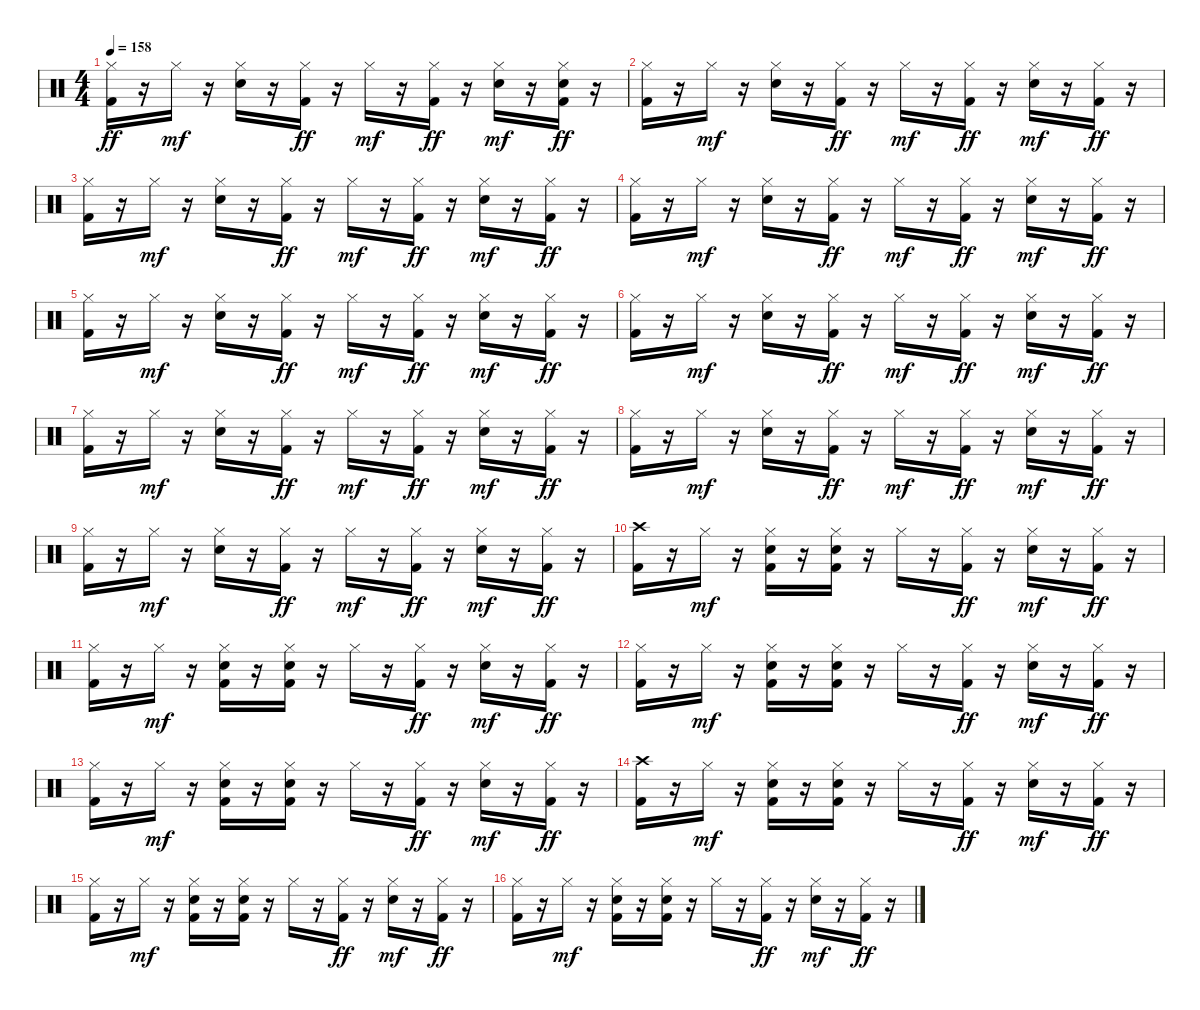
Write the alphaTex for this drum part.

\track ("   " "   ") {instrument percussion}
\staff
\articulation defaults
\ts (4 4)
\tempo 158
\clef neutral
\ks c
("Hi-Hat (closed)" "Kick (hit) 2").16{dy ff} r.16 "Hi-Hat (closed)".16{dy mf} r.16 ("Hi-Hat (closed)" "Electric Snare (hit)").16 r.16 ("Hi-Hat (closed)" "Kick (hit) 2").16{dy ff} r.16 "Hi-Hat (closed)".16{dy mf} r.16 ("Hi-Hat (closed)" "Kick (hit) 2").16{dy ff} r.16 ("Hi-Hat (closed)" "Electric Snare (hit)").16{dy mf} r.16 ("Hi-Hat (closed)" "Electric Snare (hit)" "Kick (hit) 2").16{dy ff} r.16 |
("Hi-Hat (closed)" "Kick (hit) 2").16 r.16 "Hi-Hat (closed)".16{dy mf} r.16 ("Hi-Hat (closed)" "Electric Snare (hit)").16 r.16 ("Hi-Hat (closed)" "Kick (hit) 2").16{dy ff} r.16 "Hi-Hat (closed)".16{dy mf} r.16 ("Hi-Hat (closed)" "Kick (hit) 2").16{dy ff} r.16 ("Hi-Hat (closed)" "Electric Snare (hit)").16{dy mf} r.16 ("Hi-Hat (closed)" "Kick (hit) 2").16{dy ff} r.16 |
("Hi-Hat (closed)" "Kick (hit) 2").16 r.16 "Hi-Hat (closed)".16{dy mf} r.16 ("Hi-Hat (closed)" "Electric Snare (hit)").16 r.16 ("Hi-Hat (closed)" "Kick (hit) 2").16{dy ff} r.16 "Hi-Hat (closed)".16{dy mf} r.16 ("Hi-Hat (closed)" "Kick (hit) 2").16{dy ff} r.16 ("Hi-Hat (closed)" "Electric Snare (hit)").16{dy mf} r.16 ("Hi-Hat (closed)" "Kick (hit) 2").16{dy ff} r.16 |
("Hi-Hat (closed)" "Kick (hit) 2").16 r.16 "Hi-Hat (closed)".16{dy mf} r.16 ("Hi-Hat (closed)" "Electric Snare (hit)").16 r.16 ("Hi-Hat (closed)" "Kick (hit) 2").16{dy ff} r.16 "Hi-Hat (closed)".16{dy mf} r.16 ("Hi-Hat (closed)" "Kick (hit) 2").16{dy ff} r.16 ("Hi-Hat (closed)" "Electric Snare (hit)").16{dy mf} r.16 ("Hi-Hat (closed)" "Kick (hit) 2").16{dy ff} r.16 |
("Hi-Hat (closed)" "Kick (hit) 2").16 r.16 "Hi-Hat (closed)".16{dy mf} r.16 ("Hi-Hat (closed)" "Electric Snare (hit)").16 r.16 ("Hi-Hat (closed)" "Kick (hit) 2").16{dy ff} r.16 "Hi-Hat (closed)".16{dy mf} r.16 ("Hi-Hat (closed)" "Kick (hit) 2").16{dy ff} r.16 ("Hi-Hat (closed)" "Electric Snare (hit)").16{dy mf} r.16 ("Hi-Hat (closed)" "Kick (hit) 2").16{dy ff} r.16 |
("Hi-Hat (closed)" "Kick (hit) 2").16 r.16 "Hi-Hat (closed)".16{dy mf} r.16 ("Hi-Hat (closed)" "Electric Snare (hit)").16 r.16 ("Hi-Hat (closed)" "Kick (hit) 2").16{dy ff} r.16 "Hi-Hat (closed)".16{dy mf} r.16 ("Hi-Hat (closed)" "Kick (hit) 2").16{dy ff} r.16 ("Hi-Hat (closed)" "Electric Snare (hit)").16{dy mf} r.16 ("Hi-Hat (closed)" "Kick (hit) 2").16{dy ff} r.16 |
("Hi-Hat (closed)" "Kick (hit) 2").16 r.16 "Hi-Hat (closed)".16{dy mf} r.16 ("Hi-Hat (closed)" "Electric Snare (hit)").16 r.16 ("Hi-Hat (closed)" "Kick (hit) 2").16{dy ff} r.16 "Hi-Hat (closed)".16{dy mf} r.16 ("Hi-Hat (closed)" "Kick (hit) 2").16{dy ff} r.16 ("Hi-Hat (closed)" "Electric Snare (hit)").16{dy mf} r.16 ("Hi-Hat (closed)" "Kick (hit) 2").16{dy ff} r.16 |
("Hi-Hat (closed)" "Kick (hit) 2").16 r.16 "Hi-Hat (closed)".16{dy mf} r.16 ("Hi-Hat (closed)" "Electric Snare (hit)").16 r.16 ("Hi-Hat (closed)" "Kick (hit) 2").16{dy ff} r.16 "Hi-Hat (closed)".16{dy mf} r.16 ("Hi-Hat (closed)" "Kick (hit) 2").16{dy ff} r.16 ("Hi-Hat (closed)" "Electric Snare (hit)").16{dy mf} r.16 ("Hi-Hat (closed)" "Kick (hit) 2").16{dy ff} r.16 |
("Hi-Hat (closed)" "Kick (hit) 2").16 r.16 "Hi-Hat (closed)".16{dy mf} r.16 ("Hi-Hat (closed)" "Electric Snare (hit)").16 r.16 ("Hi-Hat (closed)" "Kick (hit) 2").16{dy ff} r.16 "Hi-Hat (closed)".16{dy mf} r.16 ("Hi-Hat (closed)" "Kick (hit) 2").16{dy ff} r.16 ("Hi-Hat (closed)" "Electric Snare (hit)").16{dy mf} r.16 ("Hi-Hat (closed)" "Kick (hit) 2").16{dy ff} r.16 |
("Crash high (hit)" "Kick (hit) 2").16 r.16 "Hi-Hat (closed)".16{dy mf} r.16 ("Hi-Hat (closed)" "Electric Snare (hit)" "Kick (hit) 2").16 r.16 ("Hi-Hat (closed)" "Electric Snare (hit)" "Kick (hit) 2").16 r.16 "Hi-Hat (closed)".16 r.16 ("Hi-Hat (closed)" "Kick (hit) 2").16{dy ff} r.16 ("Hi-Hat (closed)" "Electric Snare (hit)").16{dy mf} r.16 ("Hi-Hat (closed)" "Kick (hit) 2").16{dy ff} r.16 |
("Hi-Hat (closed)" "Kick (hit) 2").16 r.16 "Hi-Hat (closed)".16{dy mf} r.16 ("Hi-Hat (closed)" "Electric Snare (hit)" "Kick (hit) 2").16 r.16 ("Hi-Hat (closed)" "Electric Snare (hit)" "Kick (hit) 2").16 r.16 "Hi-Hat (closed)".16 r.16 ("Hi-Hat (closed)" "Kick (hit) 2").16{dy ff} r.16 ("Hi-Hat (closed)" "Electric Snare (hit)").16{dy mf} r.16 ("Hi-Hat (closed)" "Kick (hit) 2").16{dy ff} r.16 |
("Hi-Hat (closed)" "Kick (hit) 2").16 r.16 "Hi-Hat (closed)".16{dy mf} r.16 ("Hi-Hat (closed)" "Electric Snare (hit)" "Kick (hit) 2").16 r.16 ("Hi-Hat (closed)" "Electric Snare (hit)" "Kick (hit) 2").16 r.16 "Hi-Hat (closed)".16 r.16 ("Hi-Hat (closed)" "Kick (hit) 2").16{dy ff} r.16 ("Hi-Hat (closed)" "Electric Snare (hit)").16{dy mf} r.16 ("Hi-Hat (closed)" "Kick (hit) 2").16{dy ff} r.16 |
("Hi-Hat (closed)" "Kick (hit) 2").16 r.16 "Hi-Hat (closed)".16{dy mf} r.16 ("Hi-Hat (closed)" "Electric Snare (hit)" "Kick (hit) 2").16 r.16 ("Hi-Hat (closed)" "Electric Snare (hit)" "Kick (hit) 2").16 r.16 "Hi-Hat (closed)".16 r.16 ("Hi-Hat (closed)" "Kick (hit) 2").16{dy ff} r.16 ("Hi-Hat (closed)" "Electric Snare (hit)").16{dy mf} r.16 ("Hi-Hat (closed)" "Kick (hit) 2").16{dy ff} r.16 |
("Crash high (hit)" "Kick (hit) 2").16 r.16 "Hi-Hat (closed)".16{dy mf} r.16 ("Hi-Hat (closed)" "Electric Snare (hit)" "Kick (hit) 2").16 r.16 ("Hi-Hat (closed)" "Electric Snare (hit)" "Kick (hit) 2").16 r.16 "Hi-Hat (closed)".16 r.16 ("Hi-Hat (closed)" "Kick (hit) 2").16{dy ff} r.16 ("Hi-Hat (closed)" "Electric Snare (hit)").16{dy mf} r.16 ("Hi-Hat (closed)" "Kick (hit) 2").16{dy ff} r.16 |
("Hi-Hat (closed)" "Kick (hit) 2").16 r.16 "Hi-Hat (closed)".16{dy mf} r.16 ("Hi-Hat (closed)" "Electric Snare (hit)" "Kick (hit) 2").16 r.16 ("Hi-Hat (closed)" "Electric Snare (hit)" "Kick (hit) 2").16 r.16 "Hi-Hat (closed)".16 r.16 ("Hi-Hat (closed)" "Kick (hit) 2").16{dy ff} r.16 ("Hi-Hat (closed)" "Electric Snare (hit)").16{dy mf} r.16 ("Hi-Hat (closed)" "Kick (hit) 2").16{dy ff} r.16 |
("Hi-Hat (closed)" "Kick (hit) 2").16 r.16 "Hi-Hat (closed)".16{dy mf} r.16 ("Hi-Hat (closed)" "Electric Snare (hit)" "Kick (hit) 2").16 r.16 ("Hi-Hat (closed)" "Electric Snare (hit)" "Kick (hit) 2").16 r.16 "Hi-Hat (closed)".16 r.16 ("Hi-Hat (closed)" "Kick (hit) 2").16{dy ff} r.16 ("Hi-Hat (closed)" "Electric Snare (hit)").16{dy mf} r.16 ("Hi-Hat (closed)" "Kick (hit) 2").16{dy ff} r.16
